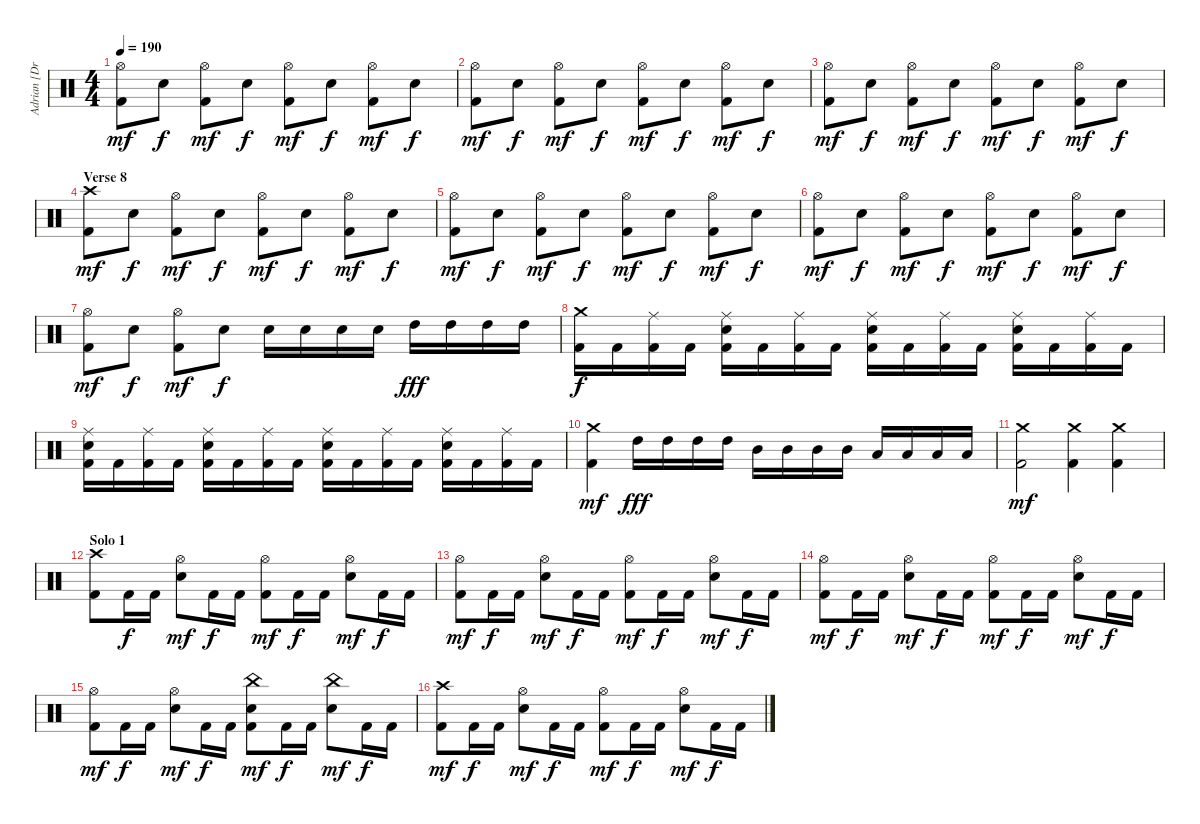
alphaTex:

\track ("Adrian [Drums]" "Adrian [Dr") {instrument percussion}
\staff {score}
\articulation defaults
\ts (4 4)
\tempo 190
\clef neutral
\ks c
("Hi-Hat (open)" "Kick (hit) 2").8{dy mf} "Electric Snare (hit)".8{dy f} ("Hi-Hat (open)" "Kick (hit) 2").8{dy mf} "Electric Snare (hit)".8{dy f} ("Hi-Hat (open)" "Kick (hit) 2").8{dy mf} "Electric Snare (hit)".8{dy f} ("Hi-Hat (open)" "Kick (hit) 2").8{dy mf} "Electric Snare (hit)".8{dy f} |
("Hi-Hat (open)" "Kick (hit) 2").8{dy mf} "Electric Snare (hit)".8{dy f} ("Hi-Hat (open)" "Kick (hit) 2").8{dy mf} "Electric Snare (hit)".8{dy f} ("Hi-Hat (open)" "Kick (hit) 2").8{dy mf} "Electric Snare (hit)".8{dy f} ("Hi-Hat (open)" "Kick (hit) 2").8{dy mf} "Electric Snare (hit)".8{dy f} |
("Hi-Hat (open)" "Kick (hit) 2").8{dy mf} "Electric Snare (hit)".8{dy f} ("Hi-Hat (open)" "Kick (hit) 2").8{dy mf} "Electric Snare (hit)".8{dy f} ("Hi-Hat (open)" "Kick (hit) 2").8{dy mf} "Electric Snare (hit)".8{dy f} ("Hi-Hat (open)" "Kick (hit) 2").8{dy mf} "Electric Snare (hit)".8{dy f} |
\section ("" "Verse 8")
("Crash high (hit)" "Kick (hit) 2").8{dy mf} "Electric Snare (hit)".8{dy f} ("Hi-Hat (open)" "Kick (hit) 2").8{dy mf} "Electric Snare (hit)".8{dy f} ("Hi-Hat (open)" "Kick (hit) 2").8{dy mf} "Electric Snare (hit)".8{dy f} ("Hi-Hat (open)" "Kick (hit) 2").8{dy mf} "Electric Snare (hit)".8{dy f} |
("Hi-Hat (open)" "Kick (hit) 2").8{dy mf} "Electric Snare (hit)".8{dy f} ("Hi-Hat (open)" "Kick (hit) 2").8{dy mf} "Electric Snare (hit)".8{dy f} ("Hi-Hat (open)" "Kick (hit) 2").8{dy mf} "Electric Snare (hit)".8{dy f} ("Hi-Hat (open)" "Kick (hit) 2").8{dy mf} "Electric Snare (hit)".8{dy f} |
("Hi-Hat (open)" "Kick (hit) 2").8{dy mf} "Electric Snare (hit)".8{dy f} ("Hi-Hat (open)" "Kick (hit) 2").8{dy mf} "Electric Snare (hit)".8{dy f} ("Hi-Hat (open)" "Kick (hit) 2").8{dy mf} "Electric Snare (hit)".8{dy f} ("Hi-Hat (open)" "Kick (hit) 2").8{dy mf} "Electric Snare (hit)".8{dy f} |
("Hi-Hat (open)" "Kick (hit) 2").8{dy mf} "Electric Snare (hit)".8{dy f} ("Hi-Hat (open)" "Kick (hit) 2").8{dy mf} "Electric Snare (hit)".8{dy f} "Electric Snare (hit)".16 "Electric Snare (hit)".16 "Electric Snare (hit)".16 "Electric Snare (hit)".16 "High Tom (hit)".16{dy fff} "High Tom (hit)".16 "High Tom (hit)".16 "High Tom (hit)".16 |
("Crash medium (hit)" "Kick (hit) 2").16{dy f} "Kick (hit) 2".16 ("Ride (middle)" "Kick (hit) 2").16 "Kick (hit) 2".16 ("Ride (middle)" "Electric Snare (hit)" "Kick (hit) 2").16 "Kick (hit) 2".16 ("Ride (middle)" "Kick (hit) 2").16 "Kick (hit) 2".16 ("Ride (middle)" "Electric Snare (hit)" "Kick (hit) 2").16 "Kick (hit) 2".16 ("Ride (middle)" "Kick (hit) 2").16 "Kick (hit) 2".16 ("Ride (middle)" "Electric Snare (hit)" "Kick (hit) 2").16 "Kick (hit) 2".16 ("Ride (middle)" "Kick (hit) 2").16 "Kick (hit) 2".16 |
("Ride (middle)" "Electric Snare (hit)" "Kick (hit) 2").16 "Kick (hit) 2".16 ("Ride (middle)" "Kick (hit) 2").16 "Kick (hit) 2".16 ("Ride (middle)" "Electric Snare (hit)" "Kick (hit) 2").16 "Kick (hit) 2".16 ("Ride (middle)" "Kick (hit) 2").16 "Kick (hit) 2".16 ("Ride (middle)" "Electric Snare (hit)" "Kick (hit) 2").16 "Kick (hit) 2".16 ("Ride (middle)" "Kick (hit) 2").16 "Kick (hit) 2".16 ("Ride (middle)" "Electric Snare (hit)" "Kick (hit) 2").16 "Kick (hit) 2".16 ("Ride (middle)" "Kick (hit) 2").16 "Kick (hit) 2".16 |
("Crash medium (hit)" "Kick (hit) 2").4{dy mf} "High Tom (hit)".16{dy fff} "High Tom (hit)".16 "High Tom (hit)".16 "High Tom (hit)".16 "Mid Tom (hit)".16 "Mid Tom (hit)".16 "Mid Tom (hit)".16 "Mid Tom (hit)".16 "Low Tom (hit)".16 "Low Tom (hit)".16 "Low Tom (hit)".16 "Low Tom (hit)".16 |
("Crash medium (hit)"{pm} "Kick (hit) 2").2{dy mf} ("Crash medium (hit)" "Kick (hit) 2").4 ("Crash medium (hit)" "Kick (hit) 2").4 |
\section ("" "Solo 1")
("Crash high (hit)" "Kick (hit) 2").8 "Kick (hit) 2".16{dy f} "Kick (hit) 2".16 ("Hi-Hat (open)" "Electric Snare (hit)").8{dy mf} "Kick (hit) 2".16{dy f} "Kick (hit) 2".16 ("Hi-Hat (open)" "Kick (hit) 2").8{dy mf} "Kick (hit) 2".16{dy f} "Kick (hit) 2".16 ("Hi-Hat (open)" "Electric Snare (hit)").8{dy mf} "Kick (hit) 2".16{dy f} "Kick (hit) 2".16 |
("Hi-Hat (open)" "Kick (hit) 2").8{dy mf} "Kick (hit) 2".16{dy f} "Kick (hit) 2".16 ("Hi-Hat (open)" "Electric Snare (hit)").8{dy mf} "Kick (hit) 2".16{dy f} "Kick (hit) 2".16 ("Hi-Hat (open)" "Kick (hit) 2").8{dy mf} "Kick (hit) 2".16{dy f} "Kick (hit) 2".16 ("Hi-Hat (open)" "Electric Snare (hit)").8{dy mf} "Kick (hit) 2".16{dy f} "Kick (hit) 2".16 |
("Hi-Hat (open)" "Kick (hit) 2").8{dy mf} "Kick (hit) 2".16{dy f} "Kick (hit) 2".16 ("Hi-Hat (open)" "Electric Snare (hit)").8{dy mf} "Kick (hit) 2".16{dy f} "Kick (hit) 2".16 ("Hi-Hat (open)" "Kick (hit) 2").8{dy mf} "Kick (hit) 2".16{dy f} "Kick (hit) 2".16 ("Hi-Hat (open)" "Electric Snare (hit)").8{dy mf} "Kick (hit) 2".16{dy f} "Kick (hit) 2".16 |
("Hi-Hat (open)" "Kick (hit) 2").8{dy mf} "Kick (hit) 2".16{dy f} "Kick (hit) 2".16 ("Hi-Hat (open)" "Electric Snare (hit)").8{dy mf} "Kick (hit) 2".16{dy f} "Kick (hit) 2".16 ("China (hit)" "Electric Snare (hit)" "Kick (hit) 2").8{dy mf} "Kick (hit) 2".16{dy f} "Kick (hit) 2".16 ("China (hit)" "Electric Snare (hit)").8{dy mf} "Kick (hit) 2".16{dy f} "Kick (hit) 2".16 |
("Crash high (hit)" "Kick (hit) 2").8{dy mf} "Kick (hit) 2".16{dy f} "Kick (hit) 2".16 ("Hi-Hat (open)" "Electric Snare (hit)").8{dy mf} "Kick (hit) 2".16{dy f} "Kick (hit) 2".16 ("Hi-Hat (open)" "Kick (hit) 2").8{dy mf} "Kick (hit) 2".16{dy f} "Kick (hit) 2".16 ("Hi-Hat (open)" "Electric Snare (hit)").8{dy mf} "Kick (hit) 2".16{dy f} "Kick (hit) 2".16
